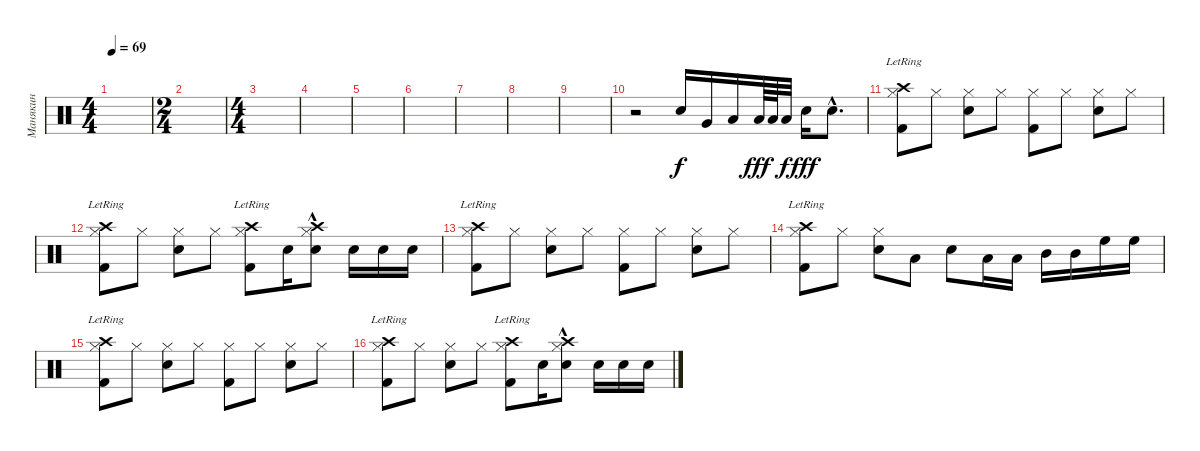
\track ("Манякин" "Манякин") {instrument percussion}
\staff {score}
\articulation defaults
\ts (4 4)
\tempo 69
\clef neutral
\ks c
|
\ts (2 4)
|
\ts (4 4)
|
|
|
|
|
|
|
r.2 "Snare (hit) 2".16 "Very Low Tom (hit)".16{dy f} "Low Floor Tom (hit)".16 "Low Tom (hit)".64{dy fff} "Low Tom (hit)".64 "Low Tom (hit)".32{dy f} "Snare (hit) 2".16{dy fff} "Snare (hit) 2"{hac}.8{d} |
("Hi-Hat (closed)" "Kick (hit) 2" "Crash high (hit)"{lr}).8 "Hi-Hat (closed)".8 ("Hi-Hat (closed)" "Snare (hit) 2").8 "Hi-Hat (closed)".8 ("Hi-Hat (closed)" "Kick (hit) 2").8 "Hi-Hat (closed)".8 ("Hi-Hat (closed)" "Snare (hit) 2").8 "Hi-Hat (closed)".8 |
("Hi-Hat (closed)" "Kick (hit) 2" "Crash high (hit)"{lr}).8 "Hi-Hat (closed)".8 ("Hi-Hat (closed)" "Snare (hit) 2").8 "Hi-Hat (closed)".8 ("Hi-Hat (closed)" "Kick (hit) 2" "Crash high (hit)"{lr}).8 "Snare (hit) 2".16 ("Hi-Hat (closed)" "Snare (hit) 2" "Crash high (hit)"{hac}).8 "Snare (hit) 2".16 "Snare (hit) 2".16 "Snare (hit) 2".16 |
("Hi-Hat (closed)" "Kick (hit) 2" "Crash high (hit)"{lr}).8 "Hi-Hat (closed)".8 ("Hi-Hat (closed)" "Snare (hit) 2").8 "Hi-Hat (closed)".8 ("Hi-Hat (closed)" "Kick (hit) 2").8 "Hi-Hat (closed)".8 ("Hi-Hat (closed)" "Snare (hit) 2").8 "Hi-Hat (closed)".8 |
("Hi-Hat (closed)" "Kick (hit) 2" "Crash high (hit)"{lr}).8 "Hi-Hat (closed)".8 ("Hi-Hat (closed)" "Snare (hit) 2").8 "Low Floor Tom (hit)".8 "Snare (hit) 2".8 "Low Tom (hit)".16 "Low Tom (hit)".16 "Mid Tom (hit)".16 "Mid Tom (hit)".16 "High Floor Tom (hit)".16 "High Floor Tom (hit)".16 |
("Hi-Hat (closed)" "Kick (hit) 2" "Crash high (hit)"{lr}).8 "Hi-Hat (closed)".8 ("Hi-Hat (closed)" "Snare (hit) 2").8 "Hi-Hat (closed)".8 ("Hi-Hat (closed)" "Kick (hit) 2").8 "Hi-Hat (closed)".8 ("Hi-Hat (closed)" "Snare (hit) 2").8 "Hi-Hat (closed)".8 |
("Hi-Hat (closed)" "Kick (hit) 2" "Crash high (hit)"{lr}).8 "Hi-Hat (closed)".8 ("Hi-Hat (closed)" "Snare (hit) 2").8 "Hi-Hat (closed)".8 ("Hi-Hat (closed)" "Kick (hit) 2" "Crash high (hit)"{lr}).8 "Snare (hit) 2".16 ("Hi-Hat (closed)" "Snare (hit) 2" "Crash high (hit)"{hac}).8 "Snare (hit) 2".16 "Snare (hit) 2".16 "Snare (hit) 2".16
